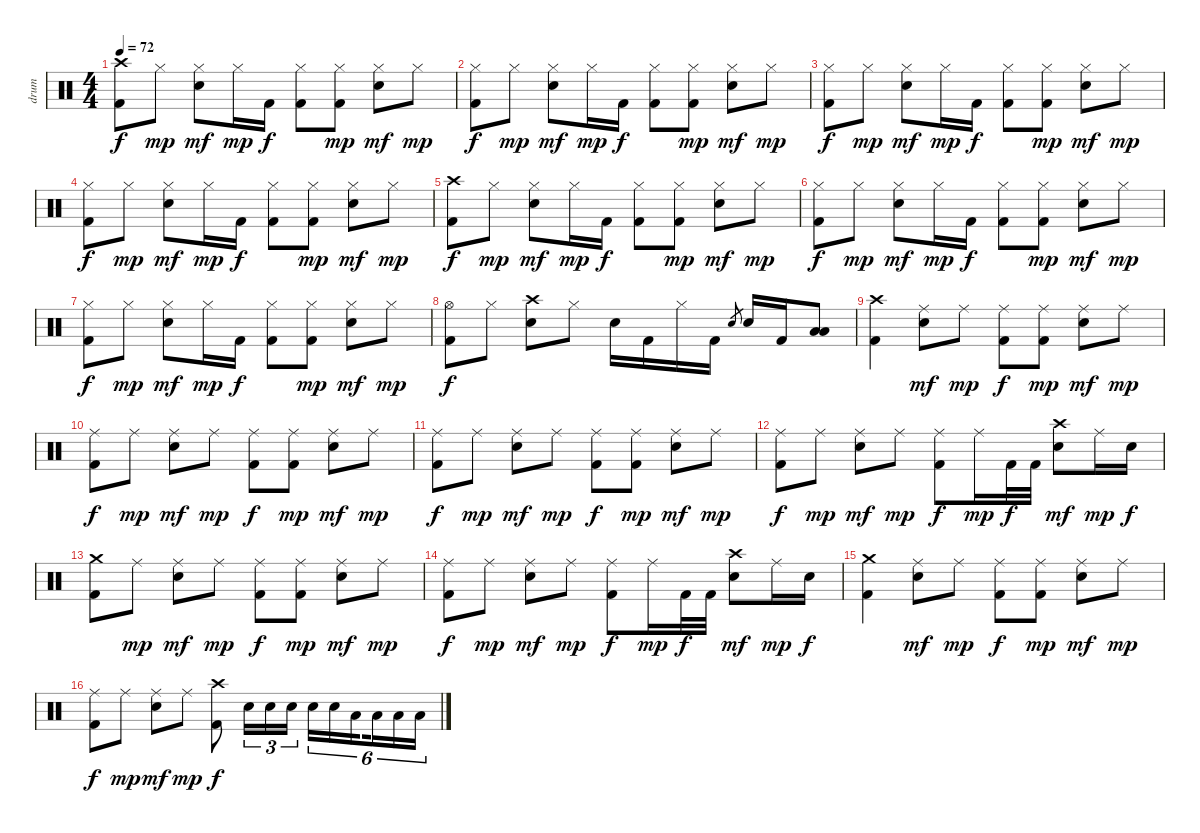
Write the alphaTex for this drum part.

\track ("drum" "drum") {instrument percussion}
\staff {score}
\articulation defaults
\ts (4 4)
\tempo 72
\clef neutral
\ks c
("Crash high (hit)" "Kick (hit) 2").8{dy f} "Hi-Hat (closed)".8{dy mp} ("Hi-Hat (closed)" "Electric Snare (hit)").8{dy mf} "Hi-Hat (closed)".16{dy mp} "Kick (hit) 2".16{dy f} ("Hi-Hat (closed)" "Kick (hit) 2").8 ("Hi-Hat (closed)" "Kick (hit) 2").8{dy mp} ("Hi-Hat (closed)" "Electric Snare (hit)").8{dy mf} "Hi-Hat (closed)".8{dy mp} |
("Hi-Hat (closed)" "Kick (hit) 2").8{dy f} "Hi-Hat (closed)".8{dy mp} ("Hi-Hat (closed)" "Electric Snare (hit)").8{dy mf} "Hi-Hat (closed)".16{dy mp} "Kick (hit) 2".16{dy f} ("Hi-Hat (closed)" "Kick (hit) 2").8 ("Hi-Hat (closed)" "Kick (hit) 2").8{dy mp} ("Hi-Hat (closed)" "Electric Snare (hit)").8{dy mf} "Hi-Hat (closed)".8{dy mp} |
("Hi-Hat (closed)" "Kick (hit) 2").8{dy f} "Hi-Hat (closed)".8{dy mp} ("Hi-Hat (closed)" "Electric Snare (hit)").8{dy mf} "Hi-Hat (closed)".16{dy mp} "Kick (hit) 2".16{dy f} ("Hi-Hat (closed)" "Kick (hit) 2").8 ("Hi-Hat (closed)" "Kick (hit) 2").8{dy mp} ("Hi-Hat (closed)" "Electric Snare (hit)").8{dy mf} "Hi-Hat (closed)".8{dy mp} |
("Hi-Hat (closed)" "Kick (hit) 2").8{dy f} "Hi-Hat (closed)".8{dy mp} ("Hi-Hat (closed)" "Electric Snare (hit)").8{dy mf} "Hi-Hat (closed)".16{dy mp} "Kick (hit) 2".16{dy f} ("Hi-Hat (closed)" "Kick (hit) 2").8 ("Hi-Hat (closed)" "Kick (hit) 2").8{dy mp} ("Hi-Hat (closed)" "Electric Snare (hit)").8{dy mf} "Hi-Hat (closed)".8{dy mp} |
("Crash high (hit)" "Kick (hit) 2").8{dy f} "Hi-Hat (closed)".8{dy mp} ("Hi-Hat (closed)" "Electric Snare (hit)").8{dy mf} "Hi-Hat (closed)".16{dy mp} "Kick (hit) 2".16{dy f} ("Hi-Hat (closed)" "Kick (hit) 2").8 ("Hi-Hat (closed)" "Kick (hit) 2").8{dy mp} ("Hi-Hat (closed)" "Electric Snare (hit)").8{dy mf} "Hi-Hat (closed)".8{dy mp} |
("Hi-Hat (closed)" "Kick (hit) 2").8{dy f} "Hi-Hat (closed)".8{dy mp} ("Hi-Hat (closed)" "Electric Snare (hit)").8{dy mf} "Hi-Hat (closed)".16{dy mp} "Kick (hit) 2".16{dy f} ("Hi-Hat (closed)" "Kick (hit) 2").8 ("Hi-Hat (closed)" "Kick (hit) 2").8{dy mp} ("Hi-Hat (closed)" "Electric Snare (hit)").8{dy mf} "Hi-Hat (closed)".8{dy mp} |
("Hi-Hat (closed)" "Kick (hit) 2").8{dy f} "Hi-Hat (closed)".8{dy mp} ("Hi-Hat (closed)" "Electric Snare (hit)").8{dy mf} "Hi-Hat (closed)".16{dy mp} "Kick (hit) 2".16{dy f} ("Hi-Hat (closed)" "Kick (hit) 2").8 ("Hi-Hat (closed)" "Kick (hit) 2").8{dy mp} ("Hi-Hat (closed)" "Electric Snare (hit)").8{dy mf} "Hi-Hat (closed)".8{dy mp} |
("Hi-Hat (open)" "Kick (hit) 2").8{dy f} "Hi-Hat (closed)".8 ("Crash high (hit)" "Electric Snare (hit)").8 "Hi-Hat (closed)".8 "Electric Snare (hit)".16 "Kick (hit) 2".16 "Hi-Hat (closed)".16 "Kick (hit) 2".16 "Electric Snare (hit)".8{gr} "Electric Snare (hit)".16 "Kick (hit) 2".16 ("Low Tom (hit)" "Low Floor Tom (hit)").8 |
("Crash high (hit)" "Kick (hit) 2").4 ("Ride (middle)" "Electric Snare (hit)").8{dy mf} "Ride (middle)".8{dy mp} ("Ride (middle)" "Kick (hit) 2").8{dy f} ("Ride (middle)" "Kick (hit) 2").8{dy mp} ("Ride (middle)" "Electric Snare (hit)").8{dy mf} "Ride (middle)".8{dy mp} |
("Ride (middle)" "Kick (hit) 2").8{dy f} "Ride (middle)".8{dy mp} ("Ride (middle)" "Electric Snare (hit)").8{dy mf} "Ride (middle)".8{dy mp} ("Ride (middle)" "Kick (hit) 2").8{dy f} ("Ride (middle)" "Kick (hit) 2").8{dy mp} ("Ride (middle)" "Electric Snare (hit)").8{dy mf} "Ride (middle)".8{dy mp} |
("Ride (middle)" "Kick (hit) 2").8{dy f} "Ride (middle)".8{dy mp} ("Ride (middle)" "Electric Snare (hit)").8{dy mf} "Ride (middle)".8{dy mp} ("Ride (middle)" "Kick (hit) 2").8{dy f} ("Ride (middle)" "Kick (hit) 2").8{dy mp} ("Ride (middle)" "Electric Snare (hit)").8{dy mf} "Ride (middle)".8{dy mp} |
("Ride (middle)" "Kick (hit) 2").8{dy f} "Ride (middle)".8{dy mp} ("Ride (middle)" "Electric Snare (hit)").8{dy mf} "Ride (middle)".8{dy mp} ("Ride (middle)" "Kick (hit) 2").8{dy f} "Ride (middle)".16{dy mp} "Kick (hit) 2".32{dy f} "Kick (hit) 2".32 ("Crash high (hit)" "Electric Snare (hit)").8{dy mf} "Ride (middle)".16{dy mp} "Electric Snare (hit)".16{dy f} |
("Crash medium (hit)" "Kick (hit) 2").8 "Ride (middle)".8{dy mp} ("Ride (middle)" "Electric Snare (hit)").8{dy mf} "Ride (middle)".8{dy mp} ("Ride (middle)" "Kick (hit) 2").8{dy f} ("Ride (middle)" "Kick (hit) 2").8{dy mp} ("Ride (middle)" "Electric Snare (hit)").8{dy mf} "Ride (middle)".8{dy mp} |
("Ride (middle)" "Kick (hit) 2").8{dy f} "Ride (middle)".8{dy mp} ("Ride (middle)" "Electric Snare (hit)").8{dy mf} "Ride (middle)".8{dy mp} ("Ride (middle)" "Kick (hit) 2").8{dy f} "Ride (middle)".16{dy mp} "Kick (hit) 2".32{dy f} "Kick (hit) 2".32 ("Crash high (hit)" "Electric Snare (hit)").8{dy mf} "Ride (middle)".16{dy mp} "Electric Snare (hit)".16{dy f} |
("Crash medium (hit)" "Kick (hit) 2").4 ("Ride (middle)" "Electric Snare (hit)").8{dy mf} "Ride (middle)".8{dy mp} ("Ride (middle)" "Kick (hit) 2").8{dy f} ("Ride (middle)" "Kick (hit) 2").8{dy mp} ("Ride (middle)" "Electric Snare (hit)").8{dy mf} "Ride (middle)".8{dy mp} |
("Ride (middle)" "Kick (hit) 2").8{dy f} "Ride (middle)".8{dy mp} ("Ride (middle)" "Electric Snare (hit)").8{dy mf} "Ride (middle)".8{dy mp} ("Crash high (hit)" "Kick (hit) 2").8{dy f} "Electric Snare (hit)".16{tu (3 2)} "Electric Snare (hit)".16{tu (3 2)} "Electric Snare (hit)".16{tu (3 2)} "Electric Snare (hit)".16{tu (6 4)} "Electric Snare (hit)".16{tu (6 4)} "Low Tom (hit)".16{tu (6 4) beam splitsecondary} "Low Tom (hit)".16{tu (6 4)} "Low Tom (hit)".16{tu (6 4)} "Low Tom (hit)".16{tu (6 4)}
